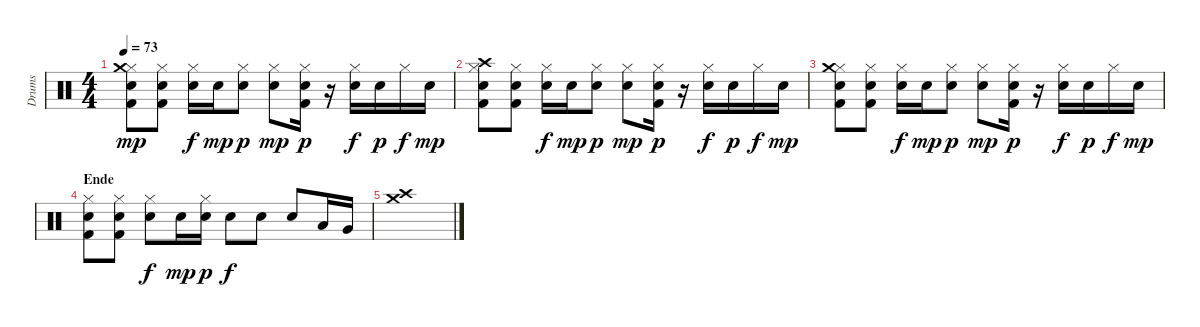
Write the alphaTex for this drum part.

\track ("Drums" "Drums") {instrument percussion}
\staff {score}
\articulation defaults
\ts (4 4)
\tempo 73
\clef neutral
\ks c
("Hi-Hat (closed)" "Crash medium (hit)" "Electric Snare (hit)" "Kick (hit) 2").8{dy mp} ("Hi-Hat (closed)" "Electric Snare (hit)" "Kick (hit) 2").8 ("Hi-Hat (closed)" "Electric Snare (hit)").16{dy f} "Electric Snare (hit)".16{dy mp} ("Hi-Hat (closed)" "Electric Snare (hit)").8{dy p} ("Hi-Hat (closed)" "Electric Snare (hit)").8{dy mp} ("Hi-Hat (closed)" "Electric Snare (hit)" "Kick (hit) 2").16{dy p} r.16 ("Hi-Hat (closed)" "Electric Snare (hit)").16{dy f} "Electric Snare (hit)".16{dy p} "Hi-Hat (closed)".16{dy f} "Electric Snare (hit)".16{dy mp} |
("Hi-Hat (closed)" "Crash high (hit)" "Electric Snare (hit)" "Kick (hit) 2").8 ("Hi-Hat (closed)" "Electric Snare (hit)" "Kick (hit) 2").8 ("Hi-Hat (closed)" "Electric Snare (hit)").16{dy f} "Electric Snare (hit)".16{dy mp} ("Hi-Hat (closed)" "Electric Snare (hit)").8{dy p} ("Hi-Hat (closed)" "Electric Snare (hit)").8{dy mp} ("Hi-Hat (closed)" "Electric Snare (hit)" "Kick (hit) 2").16{dy p} r.16 ("Hi-Hat (closed)" "Electric Snare (hit)").16{dy f} "Electric Snare (hit)".16{dy p} "Hi-Hat (closed)".16{dy f} "Electric Snare (hit)".16{dy mp} |
("Hi-Hat (closed)" "Crash medium (hit)" "Electric Snare (hit)" "Kick (hit) 2").8 ("Hi-Hat (closed)" "Electric Snare (hit)" "Kick (hit) 2").8 ("Hi-Hat (closed)" "Electric Snare (hit)").16{dy f} "Electric Snare (hit)".16{dy mp} ("Hi-Hat (closed)" "Electric Snare (hit)").8{dy p} ("Hi-Hat (closed)" "Electric Snare (hit)").8{dy mp} ("Hi-Hat (closed)" "Electric Snare (hit)" "Kick (hit) 2").16{dy p} r.16 ("Hi-Hat (closed)" "Electric Snare (hit)").16{dy f} "Electric Snare (hit)".16{dy p} "Hi-Hat (closed)".16{dy f} "Electric Snare (hit)".16{dy mp} |
\section ("" "Ende")
("Hi-Hat (closed)" "Electric Snare (hit)" "Kick (hit) 2").8 ("Hi-Hat (closed)" "Electric Snare (hit)" "Kick (hit) 2").8 ("Hi-Hat (closed)" "Electric Snare (hit)").8{dy f} "Electric Snare (hit)".16{dy mp} ("Hi-Hat (closed)" "Electric Snare (hit)").16{dy p} "Electric Snare (hit)".8{dy f} "Electric Snare (hit)".8 "Electric Snare (hit)".8 "Low Tom (hit)".16 "Very Low Tom (hit)".16 |
("Crash medium (hit)" "Crash high (hit)").1
